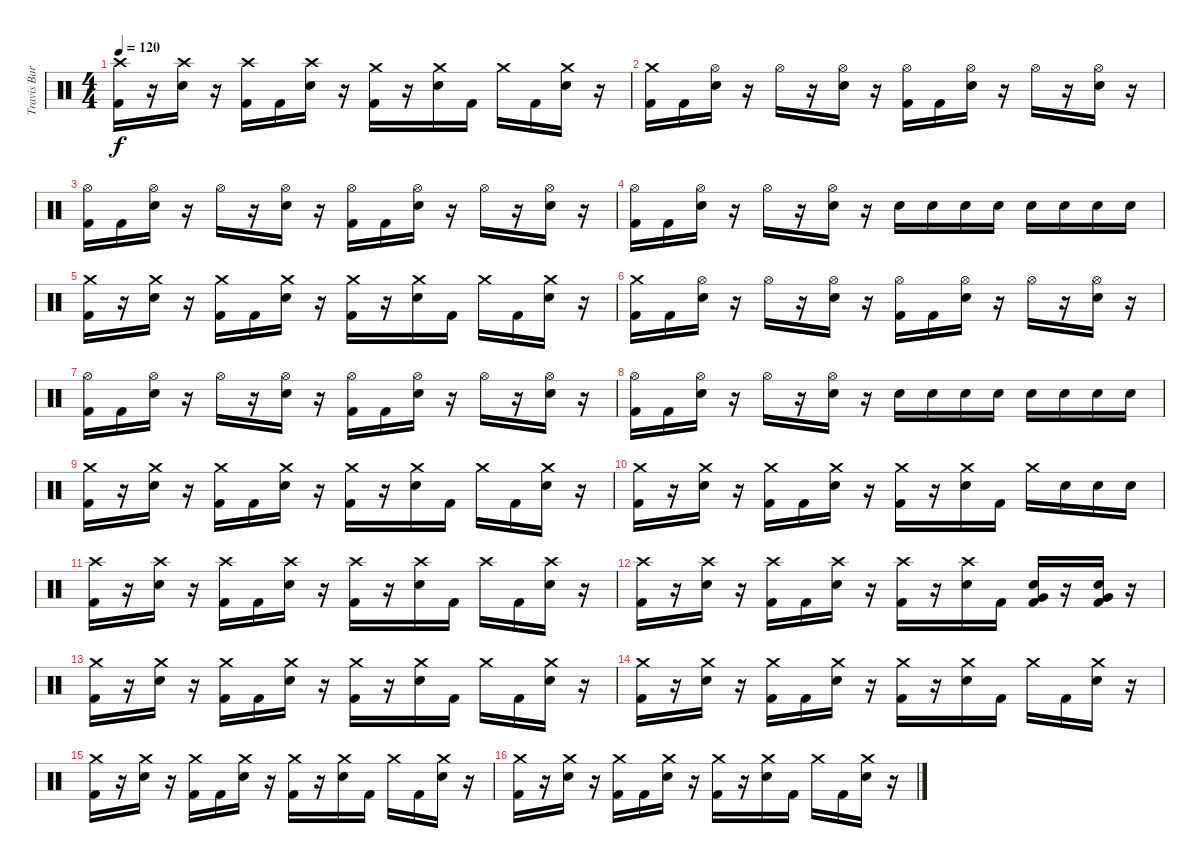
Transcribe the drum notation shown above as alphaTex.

\track ("Travis Barker Drums" "Travis Bar") {instrument percussion}
\staff {score}
\articulation defaults
\ts (4 4)
\tempo 120
\clef neutral
\ks c
("Crash high (hit)" "Kick (hit) 2").16{dy f} r.16 ("Crash high (hit)" "Snare (hit) 2").16 r.16 ("Crash high (hit)" "Kick (hit) 2").16 "Kick (hit) 2".16 ("Crash high (hit)" "Snare (hit) 2").16 r.16 ("Crash medium (hit)" "Kick (hit) 2").16 r.16 ("Crash medium (hit)" "Snare (hit) 2").16 "Kick (hit) 2".16 "Crash medium (hit)".16 "Kick (hit) 2".16 ("Crash medium (hit)" "Snare (hit) 2").16 r.16 |
("Crash medium (hit)" "Kick (hit) 2").16 "Kick (hit) 2".16 ("Hi-Hat (open)" "Snare (hit) 2").16 r.16 "Hi-Hat (open)".16 r.16 ("Hi-Hat (open)" "Snare (hit) 2").16 r.16 ("Hi-Hat (open)" "Kick (hit) 2").16 "Kick (hit) 2".16 ("Hi-Hat (open)" "Snare (hit) 2").16 r.16 "Hi-Hat (open)".16 r.16 ("Hi-Hat (open)" "Snare (hit) 2").16 r.16 |
("Hi-Hat (open)" "Kick (hit) 2").16 "Kick (hit) 2".16 ("Hi-Hat (open)" "Snare (hit) 2").16 r.16 "Hi-Hat (open)".16 r.16 ("Hi-Hat (open)" "Snare (hit) 2").16 r.16 ("Hi-Hat (open)" "Kick (hit) 2").16 "Kick (hit) 2".16 ("Hi-Hat (open)" "Snare (hit) 2").16 r.16 "Hi-Hat (open)".16 r.16 ("Hi-Hat (open)" "Snare (hit) 2").16 r.16 |
("Hi-Hat (open)" "Kick (hit) 2").16 "Kick (hit) 2".16 ("Hi-Hat (open)" "Snare (hit) 2").16 r.16 "Hi-Hat (open)".16 r.16 ("Hi-Hat (open)" "Snare (hit) 2").16 r.16 "Snare (hit) 2".16 "Snare (hit) 2".16 "Snare (hit) 2".16 "Snare (hit) 2".16 "Snare (hit) 2".16 "Snare (hit) 2".16 "Snare (hit) 2".16 "Snare (hit) 2".16 |
("Crash medium (hit)" "Kick (hit) 2").16 r.16 ("Crash medium (hit)" "Snare (hit) 2").16 r.16 ("Crash medium (hit)" "Kick (hit) 2").16 "Kick (hit) 2".16 ("Crash medium (hit)" "Snare (hit) 2").16 r.16 ("Crash medium (hit)" "Kick (hit) 2").16 r.16 ("Crash medium (hit)" "Snare (hit) 2").16 "Kick (hit) 2".16 "Crash medium (hit)".16 "Kick (hit) 2".16 ("Crash medium (hit)" "Snare (hit) 2").16 r.16 |
("Crash medium (hit)" "Kick (hit) 2").16 "Kick (hit) 2".16 ("Hi-Hat (open)" "Snare (hit) 2").16 r.16 "Hi-Hat (open)".16 r.16 ("Hi-Hat (open)" "Snare (hit) 2").16 r.16 ("Hi-Hat (open)" "Kick (hit) 2").16 "Kick (hit) 2".16 ("Hi-Hat (open)" "Snare (hit) 2").16 r.16 "Hi-Hat (open)".16 r.16 ("Hi-Hat (open)" "Snare (hit) 2").16 r.16 |
("Hi-Hat (open)" "Kick (hit) 2").16 "Kick (hit) 2".16 ("Hi-Hat (open)" "Snare (hit) 2").16 r.16 "Hi-Hat (open)".16 r.16 ("Hi-Hat (open)" "Snare (hit) 2").16 r.16 ("Hi-Hat (open)" "Kick (hit) 2").16 "Kick (hit) 2".16 ("Hi-Hat (open)" "Snare (hit) 2").16 r.16 "Hi-Hat (open)".16 r.16 ("Hi-Hat (open)" "Snare (hit) 2").16 r.16 |
("Hi-Hat (open)" "Kick (hit) 2").16 "Kick (hit) 2".16 ("Hi-Hat (open)" "Snare (hit) 2").16 r.16 "Hi-Hat (open)".16 r.16 ("Hi-Hat (open)" "Snare (hit) 2").16 r.16 "Snare (hit) 2".16 "Snare (hit) 2".16 "Snare (hit) 2".16 "Snare (hit) 2".16 "Snare (hit) 2".16 "Snare (hit) 2".16 "Snare (hit) 2".16 "Snare (hit) 2".16 |
("Crash medium (hit)" "Kick (hit) 2").16 r.16 ("Crash medium (hit)" "Snare (hit) 2").16 r.16 ("Crash medium (hit)" "Kick (hit) 2").16 "Kick (hit) 2".16 ("Crash medium (hit)" "Snare (hit) 2").16 r.16 ("Crash medium (hit)" "Kick (hit) 2").16 r.16 ("Crash medium (hit)" "Snare (hit) 2").16 "Kick (hit) 2".16 "Crash medium (hit)".16 "Kick (hit) 2".16 ("Crash medium (hit)" "Snare (hit) 2").16 r.16 |
("Crash medium (hit)" "Kick (hit) 2").16 r.16 ("Crash medium (hit)" "Snare (hit) 2").16 r.16 ("Crash medium (hit)" "Kick (hit) 2").16 "Kick (hit) 2".16 ("Crash medium (hit)" "Snare (hit) 2").16 r.16 ("Crash medium (hit)" "Kick (hit) 2").16 r.16 ("Crash medium (hit)" "Snare (hit) 2").16 "Kick (hit) 2".16 "Crash medium (hit)".16 "Snare (hit) 2".16 "Snare (hit) 2".16 "Snare (hit) 2".16 |
("Crash high (hit)" "Kick (hit) 2").16 r.16 ("Crash high (hit)" "Snare (hit) 2").16 r.16 ("Crash high (hit)" "Kick (hit) 2").16 "Kick (hit) 2".16 ("Crash high (hit)" "Snare (hit) 2").16 r.16 ("Crash high (hit)" "Kick (hit) 2").16 r.16 ("Crash high (hit)" "Snare (hit) 2").16 "Kick (hit) 2".16 "Crash high (hit)".16 "Kick (hit) 2".16 ("Crash high (hit)" "Snare (hit) 2").16 r.16 |
("Crash high (hit)" "Kick (hit) 2").16 r.16 ("Crash high (hit)" "Snare (hit) 2").16 r.16 ("Crash high (hit)" "Kick (hit) 2").16 "Kick (hit) 2".16 ("Crash high (hit)" "Snare (hit) 2").16 r.16 ("Crash high (hit)" "Kick (hit) 2").16 r.16 ("Crash high (hit)" "Snare (hit) 2").16 "Kick (hit) 2".16 ("Very Low Tom (hit)" "Snare (hit) 2" "Kick (hit) 2").16 r.16 ("Very Low Tom (hit)" "Snare (hit) 2" "Kick (hit) 2").16 r.16 |
("Crash medium (hit)" "Kick (hit) 2").16 r.16 ("Crash medium (hit)" "Snare (hit) 2").16 r.16 ("Crash medium (hit)" "Kick (hit) 2").16 "Kick (hit) 2".16 ("Crash medium (hit)" "Snare (hit) 2").16 r.16 ("Crash medium (hit)" "Kick (hit) 2").16 r.16 ("Crash medium (hit)" "Snare (hit) 2").16 "Kick (hit) 2".16 "Crash medium (hit)".16 "Kick (hit) 2".16 ("Crash medium (hit)" "Snare (hit) 2").16 r.16 |
("Crash medium (hit)" "Kick (hit) 2").16 r.16 ("Crash medium (hit)" "Snare (hit) 2").16 r.16 ("Crash medium (hit)" "Kick (hit) 2").16 "Kick (hit) 2".16 ("Crash medium (hit)" "Snare (hit) 2").16 r.16 ("Crash medium (hit)" "Kick (hit) 2").16 r.16 ("Crash medium (hit)" "Snare (hit) 2").16 "Kick (hit) 2".16 "Crash medium (hit)".16 "Kick (hit) 2".16 ("Crash medium (hit)" "Snare (hit) 2").16 r.16 |
("Crash medium (hit)" "Kick (hit) 2").16 r.16 ("Crash medium (hit)" "Snare (hit) 2").16 r.16 ("Crash medium (hit)" "Kick (hit) 2").16 "Kick (hit) 2".16 ("Crash medium (hit)" "Snare (hit) 2").16 r.16 ("Crash medium (hit)" "Kick (hit) 2").16 r.16 ("Crash medium (hit)" "Snare (hit) 2").16 "Kick (hit) 2".16 "Crash medium (hit)".16 "Kick (hit) 2".16 ("Crash medium (hit)" "Snare (hit) 2").16 r.16 |
("Crash medium (hit)" "Kick (hit) 2").16 r.16 ("Crash medium (hit)" "Snare (hit) 2").16 r.16 ("Crash medium (hit)" "Kick (hit) 2").16 "Kick (hit) 2".16 ("Crash medium (hit)" "Snare (hit) 2").16 r.16 ("Crash medium (hit)" "Kick (hit) 2").16 r.16 ("Crash medium (hit)" "Snare (hit) 2").16 "Kick (hit) 2".16 "Crash medium (hit)".16 "Kick (hit) 2".16 ("Crash medium (hit)" "Snare (hit) 2").16 r.16
